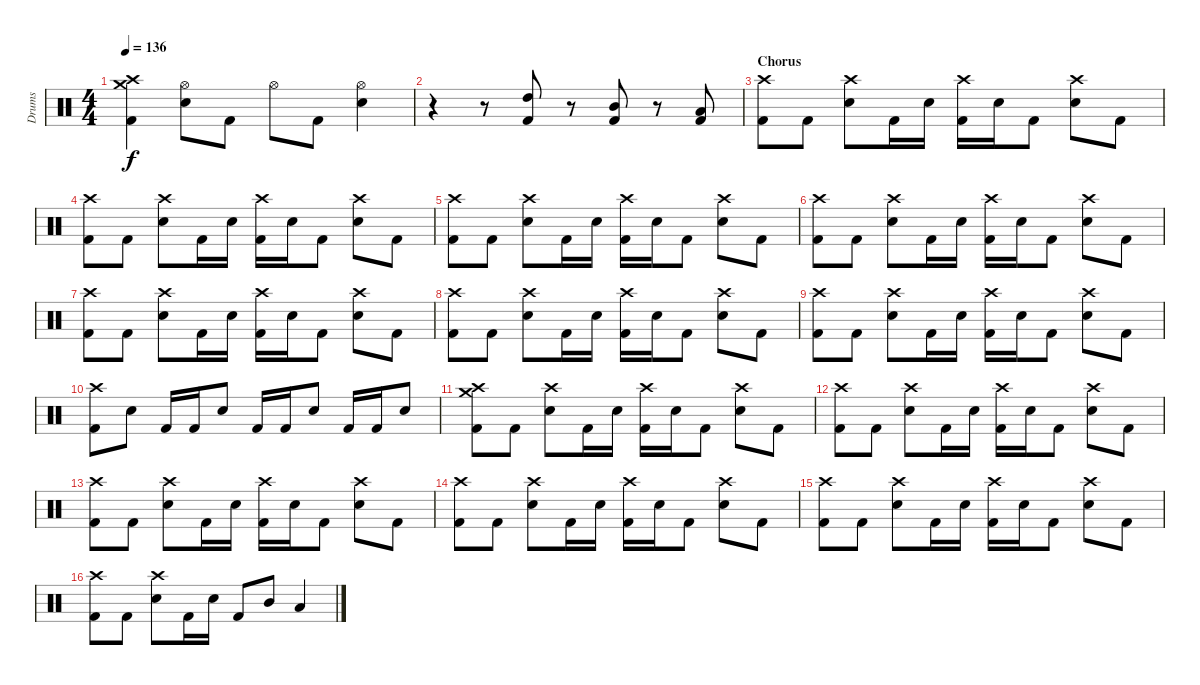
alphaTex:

\track ("Drums" "Drums") {instrument percussion}
\staff {score}
\articulation defaults
\ts (4 4)
\tempo 136
\clef neutral
\ks c
("Crash medium (hit)" "Crash high (hit)" "Kick (hit) 2").4{dy f} ("Hi-Hat (open)" "Electric Snare (hit)").8 "Kick (hit) 2".8 "Hi-Hat (open)".8 "Kick (hit) 2".8 ("Hi-Hat (open)" "Electric Snare (hit)").4 |
r.4 r.8 ("High Tom (hit)" "Kick (hit) 2").8 r.8 ("Mid Tom (hit)" "Kick (hit) 2").8 r.8 ("Low Tom (hit)" "Kick (hit) 2").8 |
\section ("" "Chorus")
("Crash high (hit)" "Kick (hit) 2").8 "Kick (hit) 2".8 ("Crash high (hit)" "Electric Snare (hit)").8 "Kick (hit) 2".16 "Electric Snare (hit)".16 ("Crash high (hit)" "Kick (hit) 2").16 "Electric Snare (hit)".16 "Kick (hit) 2".8 ("Crash high (hit)" "Electric Snare (hit)").8 "Kick (hit) 2".8 |
("Crash high (hit)" "Kick (hit) 2").8 "Kick (hit) 2".8 ("Crash high (hit)" "Electric Snare (hit)").8 "Kick (hit) 2".16 "Electric Snare (hit)".16 ("Crash high (hit)" "Kick (hit) 2").16 "Electric Snare (hit)".16 "Kick (hit) 2".8 ("Crash high (hit)" "Electric Snare (hit)").8 "Kick (hit) 2".8 |
("Crash high (hit)" "Kick (hit) 2").8 "Kick (hit) 2".8 ("Crash high (hit)" "Electric Snare (hit)").8 "Kick (hit) 2".16 "Electric Snare (hit)".16 ("Crash high (hit)" "Kick (hit) 2").16 "Electric Snare (hit)".16 "Kick (hit) 2".8 ("Crash high (hit)" "Electric Snare (hit)").8 "Kick (hit) 2".8 |
("Crash high (hit)" "Kick (hit) 2").8 "Kick (hit) 2".8 ("Crash high (hit)" "Electric Snare (hit)").8 "Kick (hit) 2".16 "Electric Snare (hit)".16 ("Crash high (hit)" "Kick (hit) 2").16 "Electric Snare (hit)".16 "Kick (hit) 2".8 ("Crash high (hit)" "Electric Snare (hit)").8 "Kick (hit) 2".8 |
("Crash high (hit)" "Kick (hit) 2").8 "Kick (hit) 2".8 ("Crash high (hit)" "Electric Snare (hit)").8 "Kick (hit) 2".16 "Electric Snare (hit)".16 ("Crash high (hit)" "Kick (hit) 2").16 "Electric Snare (hit)".16 "Kick (hit) 2".8 ("Crash high (hit)" "Electric Snare (hit)").8 "Kick (hit) 2".8 |
("Crash high (hit)" "Kick (hit) 2").8 "Kick (hit) 2".8 ("Crash high (hit)" "Electric Snare (hit)").8 "Kick (hit) 2".16 "Electric Snare (hit)".16 ("Crash high (hit)" "Kick (hit) 2").16 "Electric Snare (hit)".16 "Kick (hit) 2".8 ("Crash high (hit)" "Electric Snare (hit)").8 "Kick (hit) 2".8 |
("Crash high (hit)" "Kick (hit) 2").8 "Kick (hit) 2".8 ("Crash high (hit)" "Electric Snare (hit)").8 "Kick (hit) 2".16 "Electric Snare (hit)".16 ("Crash high (hit)" "Kick (hit) 2").16 "Electric Snare (hit)".16 "Kick (hit) 2".8 ("Crash high (hit)" "Electric Snare (hit)").8 "Kick (hit) 2".8 |
("Crash high (hit)" "Kick (hit) 2").8 "Electric Snare (hit)".8 "Kick (hit) 2".16 "Kick (hit) 2".16 "Electric Snare (hit)".8 "Kick (hit) 2".16 "Kick (hit) 2".16 "Electric Snare (hit)".8 "Kick (hit) 2".16 "Kick (hit) 2".16 "Electric Snare (hit)".8 |
("Crash medium (hit)" "Crash high (hit)" "Kick (hit) 2").8 "Kick (hit) 2".8 ("Crash high (hit)" "Electric Snare (hit)").8 "Kick (hit) 2".16 "Electric Snare (hit)".16 ("Crash high (hit)" "Kick (hit) 2").16 "Electric Snare (hit)".16 "Kick (hit) 2".8 ("Crash high (hit)" "Electric Snare (hit)").8 "Kick (hit) 2".8 |
("Crash high (hit)" "Kick (hit) 2").8 "Kick (hit) 2".8 ("Crash high (hit)" "Electric Snare (hit)").8 "Kick (hit) 2".16 "Electric Snare (hit)".16 ("Crash high (hit)" "Kick (hit) 2").16 "Electric Snare (hit)".16 "Kick (hit) 2".8 ("Crash high (hit)" "Electric Snare (hit)").8 "Kick (hit) 2".8 |
("Crash high (hit)" "Kick (hit) 2").8 "Kick (hit) 2".8 ("Crash high (hit)" "Electric Snare (hit)").8 "Kick (hit) 2".16 "Electric Snare (hit)".16 ("Crash high (hit)" "Kick (hit) 2").16 "Electric Snare (hit)".16 "Kick (hit) 2".8 ("Crash high (hit)" "Electric Snare (hit)").8 "Kick (hit) 2".8 |
("Crash high (hit)" "Kick (hit) 2").8 "Kick (hit) 2".8 ("Crash high (hit)" "Electric Snare (hit)").8 "Kick (hit) 2".16 "Electric Snare (hit)".16 ("Crash high (hit)" "Kick (hit) 2").16 "Electric Snare (hit)".16 "Kick (hit) 2".8 ("Crash high (hit)" "Electric Snare (hit)").8 "Kick (hit) 2".8 |
("Crash high (hit)" "Kick (hit) 2").8 "Kick (hit) 2".8 ("Crash high (hit)" "Electric Snare (hit)").8 "Kick (hit) 2".16 "Electric Snare (hit)".16 ("Crash high (hit)" "Kick (hit) 2").16 "Electric Snare (hit)".16 "Kick (hit) 2".8 ("Crash high (hit)" "Electric Snare (hit)").8 "Kick (hit) 2".8 |
("Crash high (hit)" "Kick (hit) 2").8 "Kick (hit) 2".8 ("Crash high (hit)" "Electric Snare (hit)").8 "Kick (hit) 2".16 "Electric Snare (hit)".16 "Kick (hit) 2".8 "Mid Tom (hit)".8 "Low Tom (hit)".4
